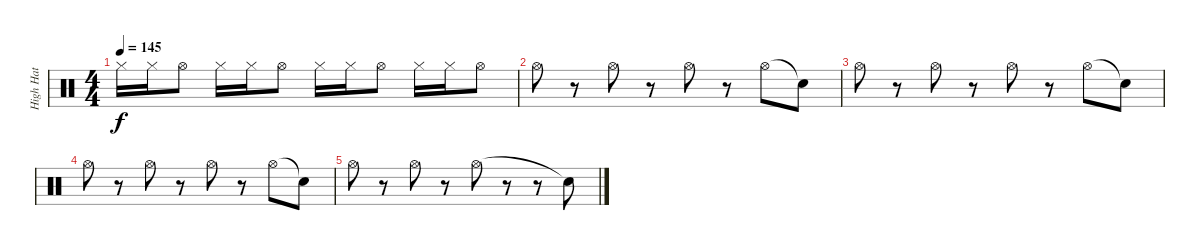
\track ("High Hat" "High Hat") {instrument percussion}
\staff {score}
\articulation defaults
\ts (4 4)
\tempo 145
\clef neutral
\ks c "Hi-Hat (closed)".16{dy f} "Hi-Hat (closed)".16 "Hi-Hat (open)".8 "Hi-Hat (closed)".16 "Hi-Hat (closed)".16 "Hi-Hat (open)".8 "Hi-Hat (closed)".16 "Hi-Hat (closed)".16 "Hi-Hat (open)".8 "Hi-Hat (closed)".16 "Hi-Hat (closed)".16 "Hi-Hat (open)".8
|
"Hi-Hat (open)".8 r.8 "Hi-Hat (open)".8 r.8 "Hi-Hat (open)".8 r.8 "Hi-Hat (open)".8 "Snare (hit)"{t}.8 |
"Hi-Hat (open)".8 r.8 "Hi-Hat (open)".8 r.8 "Hi-Hat (open)".8 r.8 "Hi-Hat (open)".8 "Snare (hit)"{t}.8 |
"Hi-Hat (open)".8 r.8 "Hi-Hat (open)".8 r.8 "Hi-Hat (open)".8 r.8 "Hi-Hat (open)".8 "Snare (hit)"{t}.8 |
"Hi-Hat (open)".8 r.8 "Hi-Hat (open)".8 r.8 "Hi-Hat (open)".8 r.8 r.8 "Snare (hit)"{t}.8
